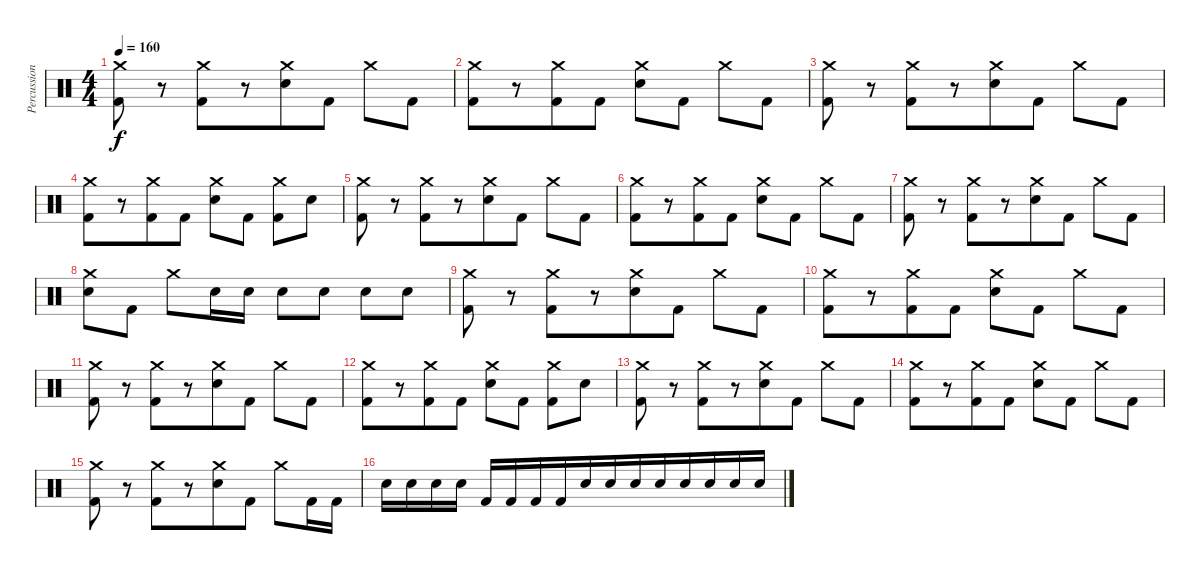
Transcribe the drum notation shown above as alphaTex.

\track ("Percussion" "Percussion") {instrument percussion}
\staff {score}
\articulation defaults
\ts (4 4)
\tempo 160
\clef neutral
\ks c
("Crash medium (hit)" "Kick (hit) 2").8{dy f} r.8 ("Crash medium (hit)" "Kick (hit) 2").8{beam merge} r.8 ("Crash medium (hit)" "Electric Snare (hit)").8{beam merge} "Kick (hit) 2".8 "Crash medium (hit)".8{beam merge} "Kick (hit) 2".8 |
("Crash medium (hit)" "Kick (hit) 2").8{beam merge} r.8 ("Crash medium (hit)" "Kick (hit) 2").8{beam merge} "Kick (hit) 2".8 ("Crash medium (hit)" "Electric Snare (hit)").8 "Kick (hit) 2".8 "Crash medium (hit)".8{beam merge} "Kick (hit) 2".8 |
("Crash medium (hit)" "Kick (hit) 2").8 r.8 ("Crash medium (hit)" "Kick (hit) 2").8{beam merge} r.8 ("Crash medium (hit)" "Electric Snare (hit)").8{beam merge} "Kick (hit) 2".8 "Crash medium (hit)".8{beam merge} "Kick (hit) 2".8 |
("Crash medium (hit)" "Kick (hit) 2").8{beam merge} r.8 ("Crash medium (hit)" "Kick (hit) 2").8{beam merge} "Kick (hit) 2".8 ("Crash medium (hit)" "Electric Snare (hit)").8 "Kick (hit) 2".8 ("Crash medium (hit)" "Kick (hit) 2").8 "Electric Snare (hit)".8 |
("Crash medium (hit)" "Kick (hit) 2").8 r.8 ("Crash medium (hit)" "Kick (hit) 2").8{beam merge} r.8 ("Crash medium (hit)" "Electric Snare (hit)").8{beam merge} "Kick (hit) 2".8 "Crash medium (hit)".8{beam merge} "Kick (hit) 2".8 |
("Crash medium (hit)" "Kick (hit) 2").8{beam merge} r.8 ("Crash medium (hit)" "Kick (hit) 2").8{beam merge} "Kick (hit) 2".8 ("Crash medium (hit)" "Electric Snare (hit)").8 "Kick (hit) 2".8 "Crash medium (hit)".8{beam merge} "Kick (hit) 2".8 |
("Crash medium (hit)" "Kick (hit) 2").8 r.8 ("Crash medium (hit)" "Kick (hit) 2").8{beam merge} r.8 ("Crash medium (hit)" "Electric Snare (hit)").8{beam merge} "Kick (hit) 2".8 "Crash medium (hit)".8{beam merge} "Kick (hit) 2".8 |
("Crash medium (hit)" "Electric Snare (hit)").8{beam merge} "Kick (hit) 2".8 "Crash medium (hit)".8 "Electric Snare (hit)".16 "Electric Snare (hit)".16 "Electric Snare (hit)".8{beam merge} "Electric Snare (hit)".8 "Electric Snare (hit)".8 "Electric Snare (hit)".8 |
("Crash medium (hit)" "Kick (hit) 2").8 r.8 ("Crash medium (hit)" "Kick (hit) 2").8{beam merge} r.8 ("Crash medium (hit)" "Electric Snare (hit)").8{beam merge} "Kick (hit) 2".8 "Crash medium (hit)".8{beam merge} "Kick (hit) 2".8 |
("Crash medium (hit)" "Kick (hit) 2").8{beam merge} r.8 ("Crash medium (hit)" "Kick (hit) 2").8{beam merge} "Kick (hit) 2".8 ("Crash medium (hit)" "Electric Snare (hit)").8 "Kick (hit) 2".8 "Crash medium (hit)".8{beam merge} "Kick (hit) 2".8 |
("Crash medium (hit)" "Kick (hit) 2").8 r.8 ("Crash medium (hit)" "Kick (hit) 2").8{beam merge} r.8 ("Crash medium (hit)" "Electric Snare (hit)").8{beam merge} "Kick (hit) 2".8 "Crash medium (hit)".8{beam merge} "Kick (hit) 2".8 |
("Crash medium (hit)" "Kick (hit) 2").8{beam merge} r.8 ("Crash medium (hit)" "Kick (hit) 2").8{beam merge} "Kick (hit) 2".8 ("Crash medium (hit)" "Electric Snare (hit)").8 "Kick (hit) 2".8 ("Crash medium (hit)" "Kick (hit) 2").8 "Electric Snare (hit)".8 |
("Crash medium (hit)" "Kick (hit) 2").8 r.8 ("Crash medium (hit)" "Kick (hit) 2").8{beam merge} r.8 ("Crash medium (hit)" "Electric Snare (hit)").8{beam merge} "Kick (hit) 2".8 "Crash medium (hit)".8{beam merge} "Kick (hit) 2".8 |
("Crash medium (hit)" "Kick (hit) 2").8{beam merge} r.8 ("Crash medium (hit)" "Kick (hit) 2").8{beam merge} "Kick (hit) 2".8 ("Crash medium (hit)" "Electric Snare (hit)").8 "Kick (hit) 2".8 "Crash medium (hit)".8{beam merge} "Kick (hit) 2".8 |
("Crash medium (hit)" "Kick (hit) 2").8 r.8 ("Crash medium (hit)" "Kick (hit) 2").8{beam merge} r.8 ("Crash medium (hit)" "Electric Snare (hit)").8{beam merge} "Kick (hit) 2".8 "Crash medium (hit)".8{beam merge} "Kick (hit) 2".16 "Kick (hit) 2".16 |
"Electric Snare (hit)".16 "Electric Snare (hit)".16{beam merge} "Electric Snare (hit)".16 "Electric Snare (hit)".16 "Kick (hit) 2".16 "Kick (hit) 2".16{beam merge} "Kick (hit) 2".16{beam merge} "Kick (hit) 2".16{beam merge} "Electric Snare (hit)".16 "Electric Snare (hit)".16 "Electric Snare (hit)".16 "Electric Snare (hit)".16{beam merge} "Electric Snare (hit)".16{beam merge} "Electric Snare (hit)".16 "Electric Snare (hit)".16{beam merge} "Electric Snare (hit)".16
